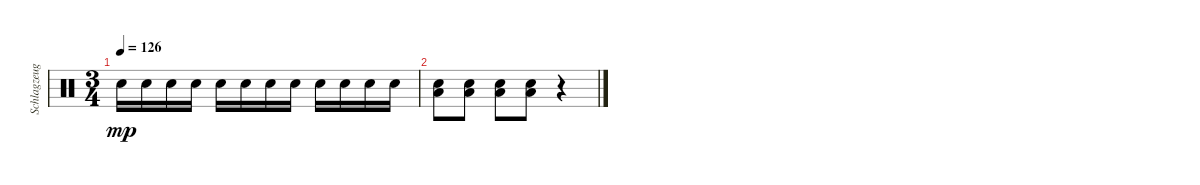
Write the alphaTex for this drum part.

\track ("Schlagzeug - Bela B." "Schlagzeug") {instrument percussion}
\staff {score}
\articulation defaults
\ts (3 4)
\tempo 126
\clef neutral
\ks c "Electric Snare (hit)".16{dy mp} "Electric Snare (hit)".16 "Electric Snare (hit)".16 "Electric Snare (hit)".16 "Electric Snare (hit)".16 "Electric Snare (hit)".16 "Electric Snare (hit)".16 "Electric Snare (hit)".16 "Electric Snare (hit)".16 "Electric Snare (hit)".16 "Electric Snare (hit)".16 "Electric Snare (hit)".16
|
("Electric Snare (hit)" "Low Floor Tom (hit)").8 ("Electric Snare (hit)" "Low Floor Tom (hit)").8 ("Electric Snare (hit)" "Low Floor Tom (hit)").8 ("Electric Snare (hit)" "Low Floor Tom (hit)").8 r.4
